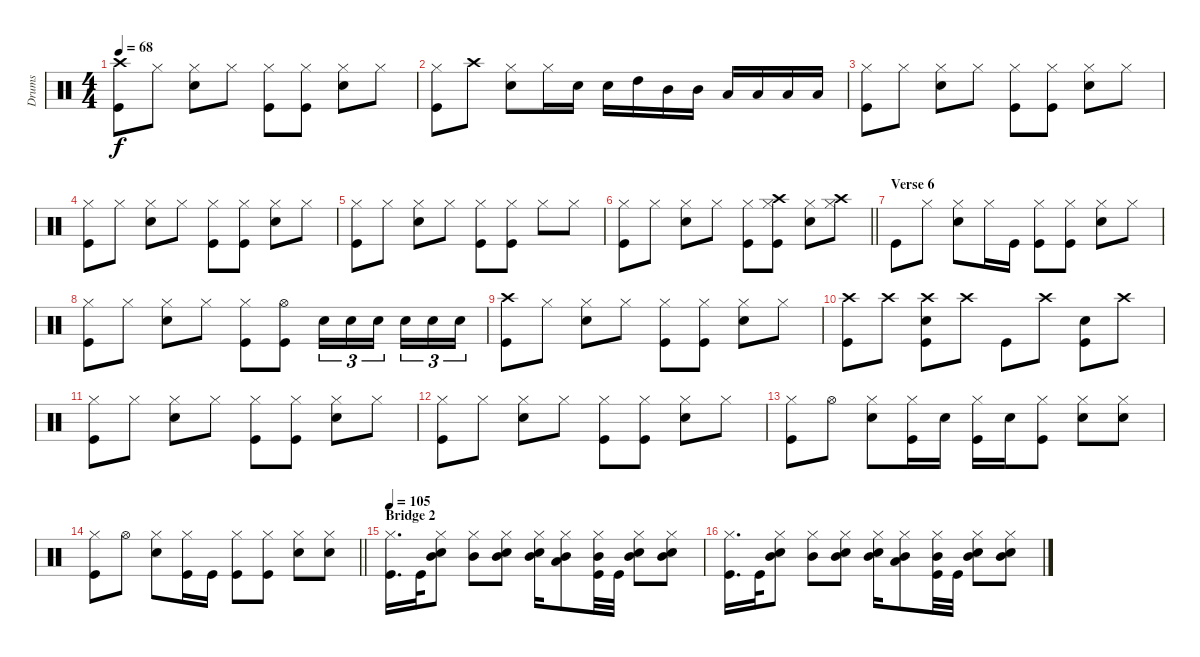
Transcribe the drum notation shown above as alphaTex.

\track ("Drums" "Drums") {instrument percussion}
\staff {score}
\articulation defaults
\ts (4 4)
\tempo 68
\clef neutral
\ks c
("Kick (hit)" "Crash high (hit)").8{dy f} "Hi-Hat (closed)".8 ("Hi-Hat (closed)" "Snare (hit) 2").8 "Hi-Hat (closed)".8 ("Hi-Hat (closed)" "Kick (hit)").8 ("Hi-Hat (closed)" "Kick (hit)").8 ("Hi-Hat (closed)" "Snare (hit) 2").8 "Hi-Hat (closed)".8 |
("Kick (hit)" "Hi-Hat (closed)").8 "Crash high (hit)".8 ("Hi-Hat (closed)" "Snare (hit) 2").8 "Hi-Hat (closed)".16 "Snare (hit) 2".16 "Snare (hit) 2".16 "High Tom (hit)".16 "Mid Tom (hit)".16 "Mid Tom (hit)".16 "Low Tom (hit)".16 "Low Tom (hit)".16 "Low Floor Tom (hit)".16 "Low Floor Tom (hit)".16 |
("Kick (hit)" "Hi-Hat (closed)").8 "Hi-Hat (closed)".8 ("Hi-Hat (closed)" "Snare (hit) 2").8 "Hi-Hat (closed)".8 ("Hi-Hat (closed)" "Kick (hit)").8 ("Hi-Hat (closed)" "Kick (hit)").8 ("Hi-Hat (closed)" "Snare (hit) 2").8 "Hi-Hat (closed)".8 |
("Kick (hit)" "Hi-Hat (closed)").8 "Hi-Hat (closed)".8 ("Hi-Hat (closed)" "Snare (hit) 2").8 "Hi-Hat (closed)".8 ("Hi-Hat (closed)" "Kick (hit)").8 ("Hi-Hat (closed)" "Kick (hit)").8 ("Hi-Hat (closed)" "Snare (hit) 2").8 "Hi-Hat (closed)".8 |
("Kick (hit)" "Hi-Hat (closed)").8 "Hi-Hat (closed)".8 ("Hi-Hat (closed)" "Snare (hit) 2").8 "Hi-Hat (closed)".8 ("Hi-Hat (closed)" "Kick (hit)").8 ("Hi-Hat (closed)" "Kick (hit)").8 "Hi-Hat (closed)".8 "Hi-Hat (closed)".8 |
\barLineRight lightlight
("Kick (hit)" "Hi-Hat (closed)").8 "Hi-Hat (closed)".8 ("Hi-Hat (closed)" "Snare (hit) 2").8 "Hi-Hat (closed)".8 ("Hi-Hat (closed)" "Kick (hit)").8 ("Hi-Hat (closed)" "Kick (hit)" "Crash high (hit)").8 ("Hi-Hat (closed)" "Snare (hit) 2").8 ("Hi-Hat (closed)" "Crash high (hit)").8 |
\section ("" "Verse 6")
"Kick (hit)".8 "Hi-Hat (closed)".8 ("Hi-Hat (closed)" "Snare (hit) 2").8 "Hi-Hat (closed)".16 "Kick (hit)".16 ("Hi-Hat (closed)" "Kick (hit)").8 ("Hi-Hat (closed)" "Kick (hit)").8 ("Hi-Hat (closed)" "Snare (hit) 2").8 "Hi-Hat (closed)".8 |
("Hi-Hat (closed)" "Kick (hit)").8 "Hi-Hat (closed)".8 ("Hi-Hat (closed)" "Snare (hit) 2").8 "Hi-Hat (closed)".8 ("Hi-Hat (closed)" "Kick (hit)").8 ("Hi-Hat (open)" "Kick (hit)").8 "Snare (hit) 2".16{tu (3 2)} "Snare (hit) 2".16{tu (3 2)} "Snare (hit) 2".16{tu (3 2) beam splitsecondary} "Snare (hit) 2".16{tu (3 2)} "Snare (hit) 2".16{tu (3 2)} "Snare (hit) 2".16{tu (3 2)} |
("Kick (hit)" "Crash high (hit)").8 "Hi-Hat (closed)".8 ("Hi-Hat (closed)" "Snare (hit) 2").8 "Hi-Hat (closed)".8 ("Hi-Hat (closed)" "Kick (hit)").8 ("Hi-Hat (closed)" "Kick (hit)").8 ("Hi-Hat (closed)" "Snare (hit) 2").8 "Hi-Hat (closed)".8 |
("Kick (hit)" "Crash high (hit)").8 "Crash high (hit)".8 ("Kick (hit)" "Snare (hit) 2" "Crash high (hit)").8 "Crash high (hit)".8 "Kick (hit)".8 "Crash high (hit)".8 ("Kick (hit)" "Snare (hit) 2").8 "Crash high (hit)".8 |
("Kick (hit)" "Hi-Hat (closed)").8 "Hi-Hat (closed)".8 ("Hi-Hat (closed)" "Snare (hit) 2").8 "Hi-Hat (closed)".8 ("Hi-Hat (closed)" "Kick (hit)").8 ("Hi-Hat (closed)" "Kick (hit)").8 ("Hi-Hat (closed)" "Snare (hit) 2").8 "Hi-Hat (closed)".8 |
("Kick (hit)" "Hi-Hat (closed)").8 "Hi-Hat (closed)".8 ("Hi-Hat (closed)" "Snare (hit) 2").8 "Hi-Hat (closed)".8 ("Hi-Hat (closed)" "Kick (hit)").8 ("Hi-Hat (closed)" "Kick (hit)").8 ("Hi-Hat (closed)" "Snare (hit) 2").8 "Hi-Hat (closed)".8 |
("Kick (hit)" "Hi-Hat (closed)").8 "Hi-Hat (open)".8 ("Snare (hit) 2" "Hi-Hat (closed)").8 ("Kick (hit)" "Hi-Hat (closed)").16 "Snare (hit) 2".16 ("Kick (hit)" "Hi-Hat (closed)").16 "Snare (hit) 2".16 ("Kick (hit)" "Hi-Hat (closed)").8 ("Snare (hit) 2" "Hi-Hat (closed)").8 ("Hi-Hat (closed)" "Snare (hit) 2").8 |
\barLineRight lightlight
("Kick (hit)" "Hi-Hat (closed)").8 "Hi-Hat (open)".8 ("Snare (hit) 2" "Hi-Hat (closed)").8 ("Kick (hit)" "Hi-Hat (closed)").16 "Kick (hit)".16 ("Kick (hit)" "Hi-Hat (closed)").8 ("Kick (hit)" "Hi-Hat (closed)").8 ("Snare (hit) 2" "Hi-Hat (closed)").8 ("Hi-Hat (closed)" "Snare (hit) 2").8 |
\section ("" "Bridge 2")
\tempo 105
("Hi-Hat (closed)" "Kick (hit)").16{d} "Kick (hit)".32 ("Snare (hit) 2" "Hi-Hat (closed)" "Mid Tom (hit)").8 ("Hi-Hat (closed)" "Mid Tom (hit)").8 ("Snare (hit) 2" "Hi-Hat (closed)" "Mid Tom (hit)").8 ("Snare (hit) 2" "Hi-Hat (closed)" "Mid Tom (hit)").16 ("Hi-Hat (closed)" "Low Tom (hit)" "Mid Tom (hit)").8 ("Kick (hit)" "Mid Tom (hit)" "Hi-Hat (closed)").32 "Kick (hit)".32 ("Snare (hit) 2" "Hi-Hat (closed)" "Mid Tom (hit)").8 ("Snare (hit) 2" "Hi-Hat (closed)" "Mid Tom (hit)").8 |
("Hi-Hat (closed)" "Kick (hit)").16{d} "Kick (hit)".32 ("Snare (hit) 2" "Hi-Hat (closed)" "Mid Tom (hit)").8 ("Hi-Hat (closed)" "Mid Tom (hit)").8 ("Snare (hit) 2" "Hi-Hat (closed)" "Mid Tom (hit)").8 ("Snare (hit) 2" "Hi-Hat (closed)" "Mid Tom (hit)").16 ("Hi-Hat (closed)" "Low Tom (hit)" "Mid Tom (hit)").8 ("Kick (hit)" "Mid Tom (hit)" "Hi-Hat (closed)").32 "Kick (hit)".32 ("Snare (hit) 2" "Hi-Hat (closed)" "Mid Tom (hit)").8 ("Snare (hit) 2" "Hi-Hat (closed)" "Mid Tom (hit)").8
